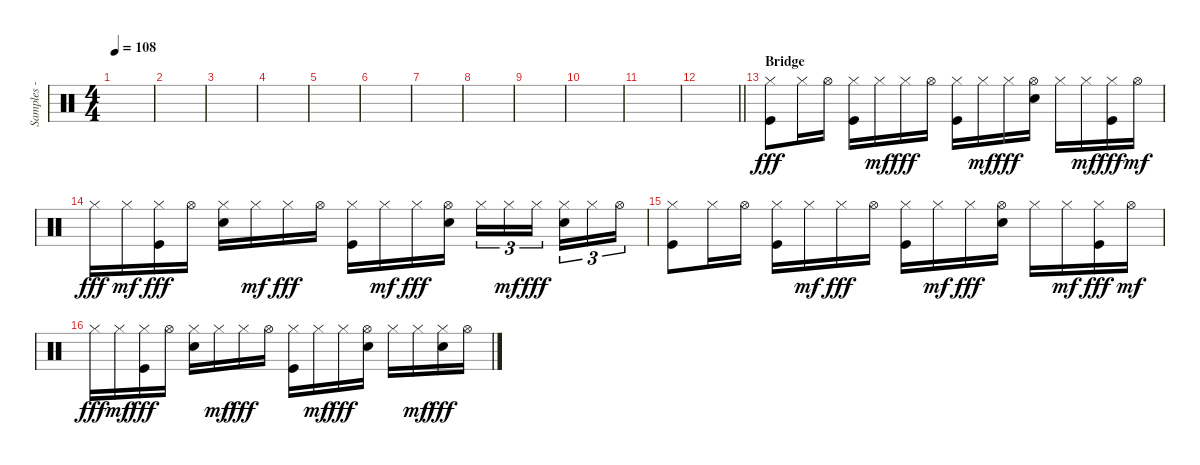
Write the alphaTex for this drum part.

\track ("Samples - Joe Hahn" "Samples - ") {instrument percussion}
\staff {score}
\articulation defaults
\ts (4 4)
\tempo 108
\clef neutral
\ks c
|
|
|
|
|
|
|
|
|
|
|
\barLineRight lightlight
|
\section ("" "Bridge")
("Hi-Hat (closed)" "Kick (hit)").8{dy fff volume 10} "Hi-Hat (closed)".16 "Hi-Hat (open)".16 ("Hi-Hat (closed)" "Kick (hit)").16 "Hi-Hat (closed)".16{dy mf} "Hi-Hat (closed)".16{dy fff} "Hi-Hat (open)".16 ("Hi-Hat (closed)" "Kick (hit)").16 "Hi-Hat (closed)".16{dy mf} "Hi-Hat (closed)".16{dy fff} ("Hi-Hat (open)" "Electric Snare (hit)").16 "Hi-Hat (closed)".16 "Hi-Hat (closed)".16{dy mf} ("Hi-Hat (closed)" "Kick (hit)").16{dy fff} "Hi-Hat (open)".16{dy mf} |
"Hi-Hat (closed)".16{dy fff} "Hi-Hat (closed)".16{dy mf} ("Hi-Hat (closed)" "Kick (hit)").16{dy fff} "Hi-Hat (open)".16 ("Hi-Hat (closed)" "Electric Snare (hit)").16 "Hi-Hat (closed)".16{dy mf} "Hi-Hat (closed)".16{dy fff} "Hi-Hat (open)".16 ("Hi-Hat (closed)" "Kick (hit)").16 "Hi-Hat (closed)".16{dy mf} "Hi-Hat (closed)".16{dy fff} ("Hi-Hat (open)" "Electric Snare (hit)").16 "Hi-Hat (closed)".16{tu (3 2)} "Hi-Hat (closed)".16{tu (3 2) dy mf} "Hi-Hat (closed)".16{tu (3 2) dy fff beam splitsecondary} ("Hi-Hat (closed)" "Electric Snare (hit)").16{tu (3 2)} "Hi-Hat (closed)".16{tu (3 2)} "Hi-Hat (open)".16{tu (3 2)} |
("Hi-Hat (closed)" "Kick (hit)").8 "Hi-Hat (closed)".16 "Hi-Hat (open)".16 ("Hi-Hat (closed)" "Kick (hit)").16 "Hi-Hat (closed)".16{dy mf} "Hi-Hat (closed)".16{dy fff} "Hi-Hat (open)".16 ("Hi-Hat (closed)" "Kick (hit)").16 "Hi-Hat (closed)".16{dy mf} "Hi-Hat (closed)".16{dy fff} ("Hi-Hat (open)" "Electric Snare (hit)").16 "Hi-Hat (closed)".16 "Hi-Hat (closed)".16{dy mf} ("Hi-Hat (closed)" "Kick (hit)").16{dy fff} "Hi-Hat (open)".16{dy mf} |
"Hi-Hat (closed)".16{dy fff} "Hi-Hat (closed)".16{dy mf} ("Hi-Hat (closed)" "Kick (hit)").16{dy fff} "Hi-Hat (open)".16 ("Hi-Hat (closed)" "Electric Snare (hit)").16 "Hi-Hat (closed)".16{dy mf} "Hi-Hat (closed)".16{dy fff} "Hi-Hat (open)".16 ("Hi-Hat (closed)" "Kick (hit)").16 "Hi-Hat (closed)".16{dy mf} "Hi-Hat (closed)".16{dy fff} ("Hi-Hat (open)" "Electric Snare (hit)").16 "Hi-Hat (closed)".16 "Hi-Hat (closed)".16{dy mf} ("Hi-Hat (closed)" "Electric Snare (hit)").16{dy fff} "Hi-Hat (open)".16
